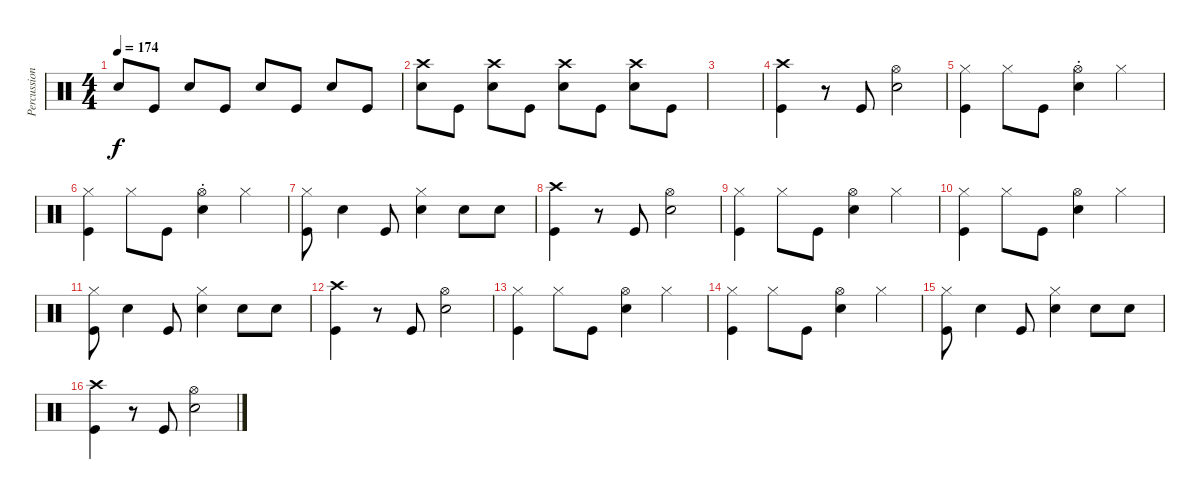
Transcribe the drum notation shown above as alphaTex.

\track ("Percussion" "Percussion") {instrument percussion}
\staff {score}
\articulation defaults
\ts (4 4)
\tempo 174
\clef neutral
\ks c "Electric Snare (hit)".8{dy f} "Kick (hit)".8 "Electric Snare (hit)".8 "Kick (hit)".8 "Electric Snare (hit)".8 "Kick (hit)".8 "Electric Snare (hit)".8 "Kick (hit)".8
|
("Crash high (hit)" "Electric Snare (hit)").8 "Kick (hit)".8 ("Crash high (hit)" "Electric Snare (hit)").8 "Kick (hit)".8 ("Crash high (hit)" "Electric Snare (hit)").8 "Kick (hit)".8 ("Crash high (hit)" "Electric Snare (hit)").8 "Kick (hit)".8 |
|
("Crash high (hit)" "Kick (hit)").4 r.8 "Kick (hit)".8 ("Hi-Hat (open)" "Electric Snare (hit)").2 |
("Hi-Hat (closed)" "Kick (hit)").4 "Hi-Hat (closed)".8 "Kick (hit)".8 ("Hi-Hat (open)"{st} "Electric Snare (hit)").4 "Hi-Hat (closed)".4 |
("Hi-Hat (closed)" "Kick (hit)").4 "Hi-Hat (closed)".8 "Kick (hit)".8 ("Hi-Hat (open)"{st} "Electric Snare (hit)").4 "Hi-Hat (closed)".4 |
("Hi-Hat (closed)" "Kick (hit)").8 "Electric Snare (hit)".4 "Kick (hit)".8 ("Hi-Hat (closed)" "Electric Snare (hit)").4 "Electric Snare (hit)".8 "Electric Snare (hit)".8 |
("Crash high (hit)" "Kick (hit)").4 r.8 "Kick (hit)".8 ("Hi-Hat (open)" "Electric Snare (hit)").2 |
("Hi-Hat (closed)" "Kick (hit)").4 "Hi-Hat (closed)".8 "Kick (hit)".8 ("Hi-Hat (open)" "Electric Snare (hit)").4 "Hi-Hat (closed)".4 |
("Hi-Hat (closed)" "Kick (hit)").4 "Hi-Hat (closed)".8 "Kick (hit)".8 ("Hi-Hat (open)" "Electric Snare (hit)").4 "Hi-Hat (closed)".4 |
("Hi-Hat (closed)" "Kick (hit)").8 "Electric Snare (hit)".4 "Kick (hit)".8 ("Hi-Hat (closed)" "Electric Snare (hit)").4 "Electric Snare (hit)".8 "Electric Snare (hit)".8 |
("Crash high (hit)" "Kick (hit)").4 r.8 "Kick (hit)".8 ("Hi-Hat (open)" "Electric Snare (hit)").2 |
("Hi-Hat (closed)" "Kick (hit)").4 "Hi-Hat (closed)".8 "Kick (hit)".8 ("Hi-Hat (open)" "Electric Snare (hit)").4 "Hi-Hat (closed)".4 |
("Hi-Hat (closed)" "Kick (hit)").4 "Hi-Hat (closed)".8 "Kick (hit)".8 ("Hi-Hat (open)" "Electric Snare (hit)").4 "Hi-Hat (closed)".4 |
("Hi-Hat (closed)" "Kick (hit)").8 "Electric Snare (hit)".4 "Kick (hit)".8 ("Hi-Hat (closed)" "Electric Snare (hit)").4 "Electric Snare (hit)".8 "Electric Snare (hit)".8 |
("Crash high (hit)" "Kick (hit)").4 r.8 "Kick (hit)".8 ("Hi-Hat (open)" "Electric Snare (hit)").2
